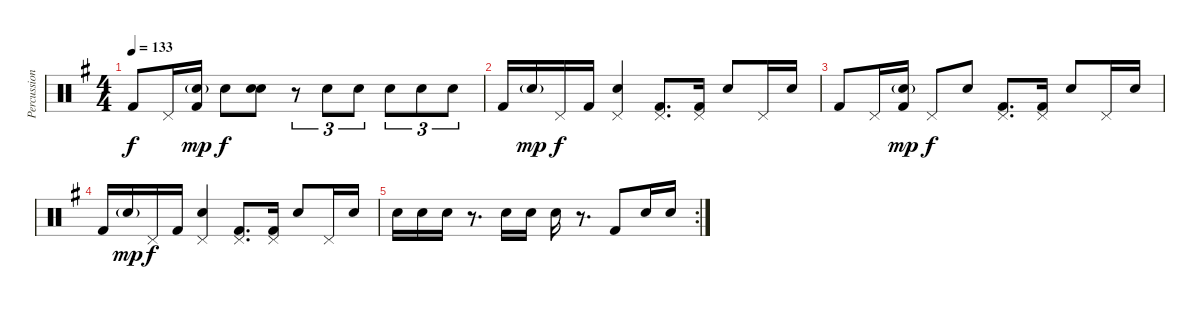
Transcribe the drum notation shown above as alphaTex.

\track ("Percussion" "Percussion") {instrument percussion bank 177}
\staff {score}
\articulation defaults
\ts (4 4)
\tempo 133
\clef neutral
\ks eminor "Kick (hit) 2".8{dy f} "Pedal Hi-Hat (hit)".16
("Electric Snare (hit)"{g} "Kick (hit) 2").16{dy mp} "Hand Clap (hit)".8{dy f} ("Hand Clap (hit)" "Electric Snare (hit)").8 r.8{tu (3 2)} "Electric Snare (hit)".8{tu (3 2)} "Electric Snare (hit)".8{tu (3 2)} "Electric Snare (hit)".8{tu (3 2)} "Electric Snare (hit)".8{tu (3 2)} "Electric Snare (hit)".8{tu (3 2)} |
"Kick (hit) 2".16 "Electric Snare (hit)"{g}.16{dy mp} "Pedal Hi-Hat (hit)".16{dy f} "Kick (hit) 2".16 ("Pedal Hi-Hat (hit)" "Hand Clap (hit)").4 ("Pedal Hi-Hat (hit)" "Kick (hit) 2").8{d} ("Pedal Hi-Hat (hit)" "Kick (hit) 2").16 "Hand Clap (hit)".8 "Pedal Hi-Hat (hit)".16 "Hand Clap (hit)".16 |
"Kick (hit) 2".8 "Pedal Hi-Hat (hit)".16 ("Electric Snare (hit)"{g} "Kick (hit) 2").16{dy mp} "Pedal Hi-Hat (hit)".8{dy f} "Electric Snare (hit)".8 ("Pedal Hi-Hat (hit)" "Kick (hit) 2").8{d} ("Pedal Hi-Hat (hit)" "Kick (hit) 2").16 "Hand Clap (hit)".8 "Pedal Hi-Hat (hit)".16 "Hand Clap (hit)".16 |
"Kick (hit) 2".16 "Electric Snare (hit)"{g}.16{dy mp} "Pedal Hi-Hat (hit)".16{dy f} "Kick (hit) 2".16 ("Pedal Hi-Hat (hit)" "Hand Clap (hit)").4 ("Pedal Hi-Hat (hit)" "Kick (hit) 2").8{d} ("Pedal Hi-Hat (hit)" "Kick (hit) 2").16 "Hand Clap (hit)".8 "Pedal Hi-Hat (hit)".16 "Hand Clap (hit)".16 |
\rc 2 "Hand Clap (hit)".16 "Hand Clap (hit)".16 "Hand Clap (hit)".16
r.8{d} "Hand Clap (hit)".16 "Hand Clap (hit)".16 "Hand Clap (hit)".16 r.8{d} "Kick (hit) 2".8 "Hand Clap (hit)".16 "Hand Clap (hit)".16
